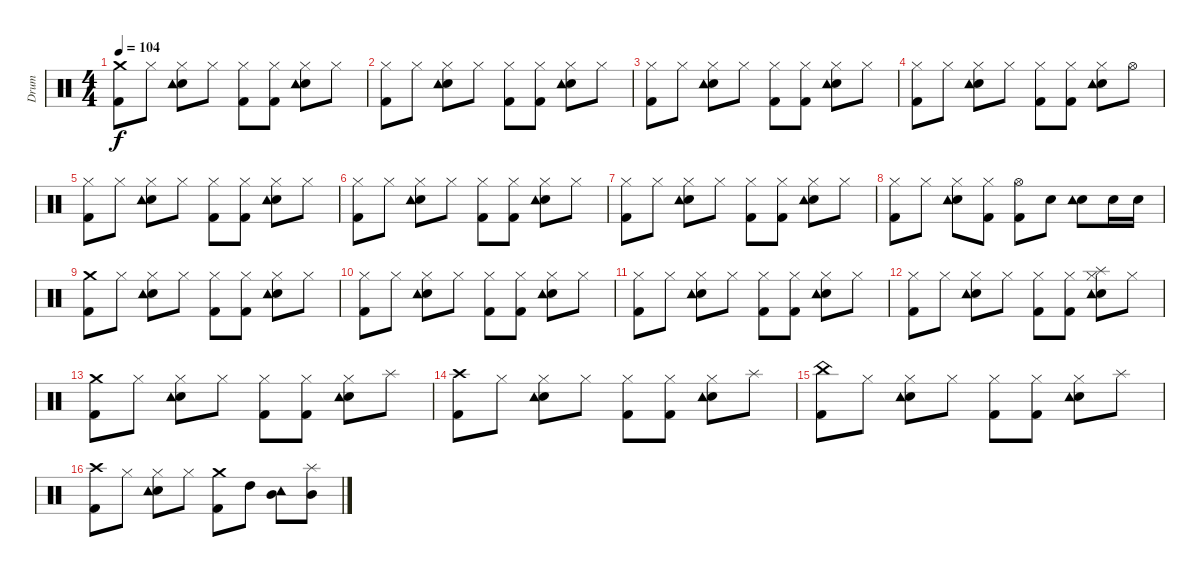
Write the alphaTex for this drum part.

\track ("Drum" "Drum") {instrument percussion}
\staff {score}
\articulation defaults
\ts (4 4)
\tempo 104
\clef neutral
\ks c
("Crash medium (hit)" "Kick (hit) 2").8{dy f} "Hi-Hat (closed)".8 ("Snare (hit) 2" "Hi-Hat (closed)" "Tambourine (hit)").8 "Hi-Hat (closed)".8 ("Hi-Hat (closed)" "Kick (hit) 2").8 ("Hi-Hat (closed)" "Kick (hit) 2").8 ("Snare (hit) 2" "Hi-Hat (closed)" "Tambourine (hit)").8 "Hi-Hat (closed)".8 |
("Hi-Hat (closed)" "Kick (hit) 2").8 "Hi-Hat (closed)".8 ("Snare (hit) 2" "Hi-Hat (closed)" "Tambourine (hit)").8 "Hi-Hat (closed)".8 ("Hi-Hat (closed)" "Kick (hit) 2").8 ("Hi-Hat (closed)" "Kick (hit) 2").8 ("Snare (hit) 2" "Hi-Hat (closed)" "Tambourine (hit)").8 "Hi-Hat (closed)".8 |
("Hi-Hat (closed)" "Kick (hit) 2").8 "Hi-Hat (closed)".8 ("Snare (hit) 2" "Hi-Hat (closed)" "Tambourine (hit)").8 "Hi-Hat (closed)".8 ("Hi-Hat (closed)" "Kick (hit) 2").8 ("Hi-Hat (closed)" "Kick (hit) 2").8 ("Snare (hit) 2" "Hi-Hat (closed)" "Tambourine (hit)").8 "Hi-Hat (closed)".8 |
("Hi-Hat (closed)" "Kick (hit) 2").8 "Hi-Hat (closed)".8 ("Snare (hit) 2" "Hi-Hat (closed)" "Tambourine (hit)").8 "Hi-Hat (closed)".8 ("Hi-Hat (closed)" "Kick (hit) 2").8 ("Hi-Hat (closed)" "Kick (hit) 2").8 ("Snare (hit) 2" "Hi-Hat (closed)" "Tambourine (hit)").8 "Hi-Hat (open)".8 |
("Hi-Hat (closed)" "Kick (hit) 2").8 "Hi-Hat (closed)".8 ("Snare (hit) 2" "Hi-Hat (closed)" "Tambourine (hit)").8 "Hi-Hat (closed)".8 ("Hi-Hat (closed)" "Kick (hit) 2").8 ("Hi-Hat (closed)" "Kick (hit) 2").8 ("Snare (hit) 2" "Hi-Hat (closed)" "Tambourine (hit)").8 "Hi-Hat (closed)".8 |
("Hi-Hat (closed)" "Kick (hit) 2").8 "Hi-Hat (closed)".8 ("Snare (hit) 2" "Hi-Hat (closed)" "Tambourine (hit)").8 "Hi-Hat (closed)".8 ("Hi-Hat (closed)" "Kick (hit) 2").8 ("Hi-Hat (closed)" "Kick (hit) 2").8 ("Snare (hit) 2" "Hi-Hat (closed)" "Tambourine (hit)").8 "Hi-Hat (closed)".8 |
("Hi-Hat (closed)" "Kick (hit) 2").8 "Hi-Hat (closed)".8 ("Snare (hit) 2" "Hi-Hat (closed)" "Tambourine (hit)").8 "Hi-Hat (closed)".8 ("Hi-Hat (closed)" "Kick (hit) 2").8 ("Hi-Hat (closed)" "Kick (hit) 2").8 ("Snare (hit) 2" "Hi-Hat (closed)" "Tambourine (hit)").8 "Hi-Hat (closed)".8 |
("Hi-Hat (closed)" "Kick (hit) 2").8 "Hi-Hat (closed)".8 ("Snare (hit) 2" "Hi-Hat (closed)" "Tambourine (hit)").8 ("Hi-Hat (closed)" "Kick (hit) 2").8 ("Hi-Hat (open)" "Kick (hit) 2").8 "Snare (hit) 2".8 ("Snare (hit) 2" "Tambourine (hit)").8 "Snare (hit) 2".16 "Snare (hit) 2".16 |
("Crash medium (hit)" "Kick (hit) 2").8 "Hi-Hat (closed)".8 ("Snare (hit) 2" "Hi-Hat (closed)" "Tambourine (hit)").8 "Hi-Hat (closed)".8 ("Hi-Hat (closed)" "Kick (hit) 2").8 ("Hi-Hat (closed)" "Kick (hit) 2").8 ("Snare (hit) 2" "Hi-Hat (closed)" "Tambourine (hit)").8 "Hi-Hat (closed)".8 |
("Hi-Hat (closed)" "Kick (hit) 2").8 "Hi-Hat (closed)".8 ("Snare (hit) 2" "Hi-Hat (closed)" "Tambourine (hit)").8 "Hi-Hat (closed)".8 ("Hi-Hat (closed)" "Kick (hit) 2").8 ("Hi-Hat (closed)" "Kick (hit) 2").8 ("Snare (hit) 2" "Hi-Hat (closed)" "Tambourine (hit)").8 "Hi-Hat (closed)".8 |
("Hi-Hat (closed)" "Kick (hit) 2").8 "Hi-Hat (closed)".8 ("Snare (hit) 2" "Hi-Hat (closed)" "Tambourine (hit)").8 "Hi-Hat (closed)".8 ("Hi-Hat (closed)" "Kick (hit) 2").8 ("Hi-Hat (closed)" "Kick (hit) 2").8 ("Snare (hit) 2" "Hi-Hat (closed)" "Tambourine (hit)").8 "Hi-Hat (closed)".8 |
("Hi-Hat (closed)" "Kick (hit) 2").8 "Hi-Hat (closed)".8 ("Snare (hit) 2" "Hi-Hat (closed)" "Tambourine (hit)").8 "Hi-Hat (closed)".8 ("Hi-Hat (closed)" "Kick (hit) 2").8 ("Hi-Hat (closed)" "Kick (hit) 2").8 ("Snare (hit) 2" "Hi-Hat (closed)" "Tambourine (hit)" "Splash (hit)").8 "Hi-Hat (closed)".8 |
("Crash medium (hit)" "Kick (hit) 2").8 "Hi-Hat (closed)".8 ("Snare (hit) 2" "Hi-Hat (closed)" "Tambourine (hit)").8 "Hi-Hat (closed)".8 ("Hi-Hat (closed)" "Kick (hit) 2").8 ("Hi-Hat (closed)" "Kick (hit) 2").8 ("Snare (hit) 2" "Hi-Hat (closed)" "Tambourine (hit)").8 "Splash (hit)".8 |
("Crash high (hit)" "Kick (hit) 2").8 "Hi-Hat (closed)".8 ("Snare (hit) 2" "Hi-Hat (closed)" "Tambourine (hit)").8 "Hi-Hat (closed)".8 ("Hi-Hat (closed)" "Kick (hit) 2").8 ("Hi-Hat (closed)" "Kick (hit) 2").8 ("Snare (hit) 2" "Hi-Hat (closed)" "Tambourine (hit)").8 "Splash (hit)".8 |
("China (hit)" "Kick (hit) 2").8 "Hi-Hat (closed)".8 ("Snare (hit) 2" "Hi-Hat (closed)" "Tambourine (hit)").8 "Hi-Hat (closed)".8 ("Hi-Hat (closed)" "Kick (hit) 2").8 ("Hi-Hat (closed)" "Kick (hit) 2").8 ("Snare (hit) 2" "Hi-Hat (closed)" "Tambourine (hit)").8 "Splash (hit)".8 |
("Crash high (hit)" "Kick (hit) 2").8 "Hi-Hat (closed)".8 ("Snare (hit) 2" "Hi-Hat (closed)" "Tambourine (hit)").8 "Hi-Hat (closed)".8 ("Crash medium (hit)" "Kick (hit) 2").8 "High Tom (hit)".8 ("Mid Tom (hit)" "Tambourine (hit)").8 ("Mid Tom (hit)" "Splash (hit)").8
